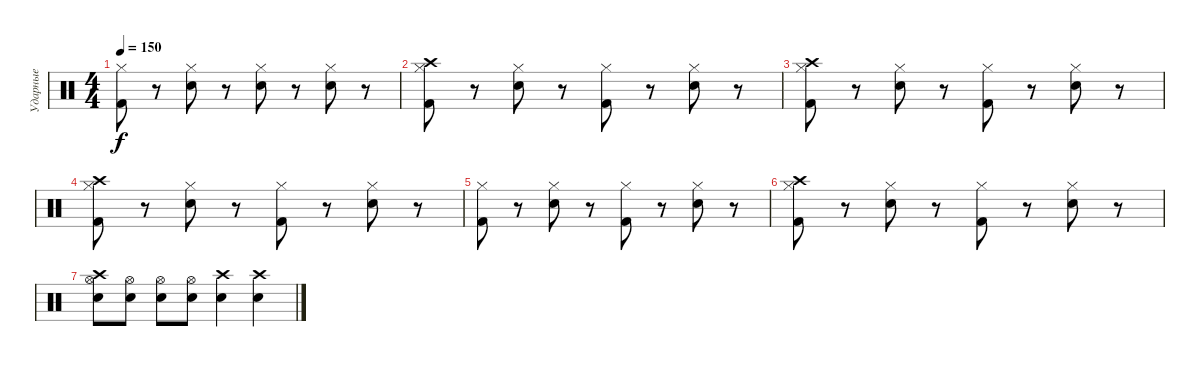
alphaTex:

\track ("Ударные" "Ударные") {instrument percussion}
\staff {score}
\articulation defaults
\ts (4 4)
\tempo 150
\clef neutral
\ks c
("Hi-Hat (closed)" "Kick (hit) 2").8{dy f} r.8 ("Hi-Hat (closed)" "Snare (hit) 2").8 r.8 ("Hi-Hat (closed)" "Snare (hit) 2").8 r.8 ("Hi-Hat (closed)" "Snare (hit) 2").8 r.8 |
("Hi-Hat (closed)" "Kick (hit) 2" "Crash high (hit)").8 r.8 ("Hi-Hat (closed)" "Snare (hit) 2").8 r.8 ("Hi-Hat (closed)" "Kick (hit) 2").8 r.8 ("Hi-Hat (closed)" "Snare (hit) 2").8 r.8 |
("Hi-Hat (closed)" "Kick (hit) 2" "Crash high (hit)").8 r.8 ("Hi-Hat (closed)" "Snare (hit) 2").8 r.8 ("Hi-Hat (closed)" "Kick (hit) 2").8 r.8 ("Hi-Hat (closed)" "Snare (hit) 2").8 r.8 |
("Hi-Hat (closed)" "Kick (hit) 2" "Crash high (hit)").8 r.8 ("Hi-Hat (closed)" "Snare (hit) 2").8 r.8 ("Hi-Hat (closed)" "Kick (hit) 2").8 r.8 ("Hi-Hat (closed)" "Snare (hit) 2").8 r.8 |
("Hi-Hat (closed)" "Kick (hit) 2").8 r.8 ("Hi-Hat (closed)" "Snare (hit) 2").8 r.8 ("Hi-Hat (closed)" "Kick (hit) 2").8 r.8 ("Hi-Hat (closed)" "Snare (hit) 2").8 r.8 |
("Hi-Hat (closed)" "Kick (hit) 2" "Crash high (hit)").8 r.8 ("Hi-Hat (closed)" "Snare (hit) 2").8 r.8 ("Hi-Hat (closed)" "Kick (hit) 2").8 r.8 ("Hi-Hat (closed)" "Snare (hit) 2").8 r.8 |
("Hi-Hat (open)" "Snare (hit) 2" "Crash high (hit)").8 ("Hi-Hat (open)" "Snare (hit) 2").8 ("Hi-Hat (open)" "Snare (hit) 2").8 ("Hi-Hat (open)" "Snare (hit) 2").8 ("Snare (hit) 2" "Crash high (hit)").4 ("Snare (hit) 2" "Crash high (hit)").4
